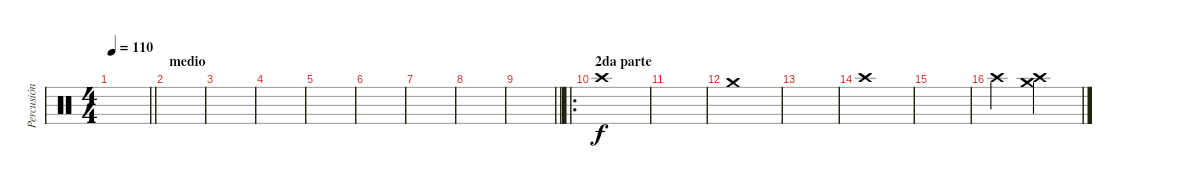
\track ("Percusión" "Percusión") {instrument percussion}
\staff {score}
\articulation defaults
\ts (4 4)
\tempo 110
\clef neutral
\barLineRight lightlight
\ks c
|
\section ("" "medio")
|
|
|
|
|
|
|
\barLineRight lightlight
|
\ro
\section ("" "2da parte")
"Crash high (hit)".1 |
|
"Crash medium (hit)".1 |
|
"Crash high (hit)".1 |
|
"Crash high (hit)".2 ("Crash medium (hit)" "Crash high (hit)").2
